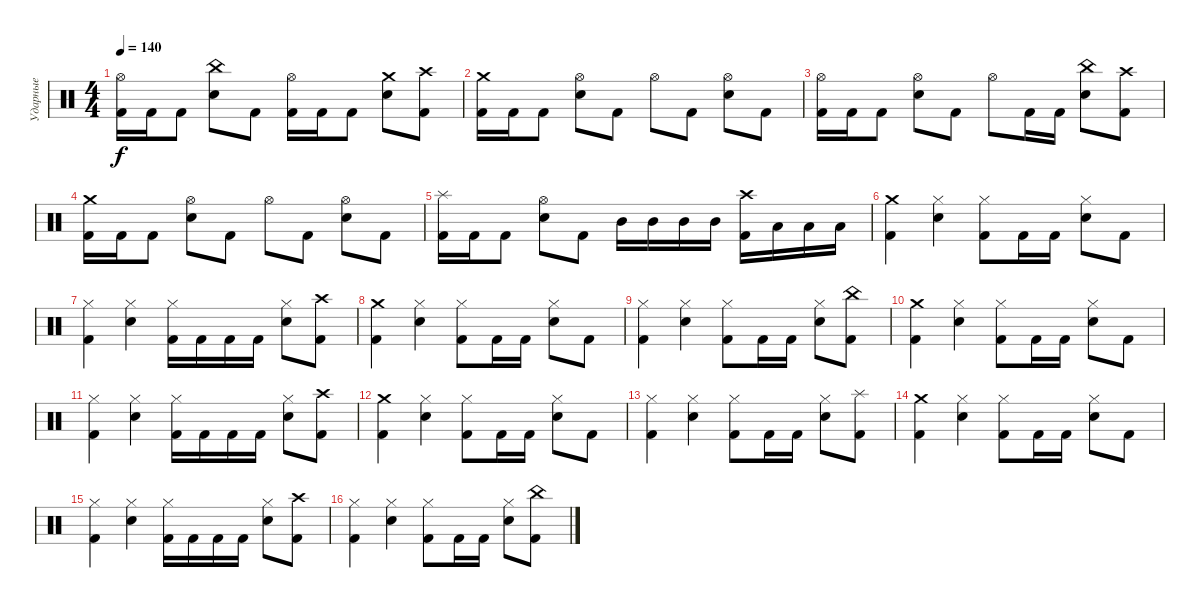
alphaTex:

\track ("Ударные" "Ударные") {instrument percussion}
\staff {score}
\articulation defaults
\ts (4 4)
\tempo 140
\clef neutral
\ks c
("Hi-Hat (open)" "Kick (hit) 2").16{dy f} "Kick (hit) 2".16 "Kick (hit) 2".8 ("China (hit)" "Electric Snare (hit)").8 "Kick (hit) 2".8 ("Hi-Hat (open)" "Kick (hit) 2").16 "Kick (hit) 2".16 "Kick (hit) 2".8 ("Crash medium (hit)" "Electric Snare (hit)").8 ("Crash high (hit)" "Kick (hit) 2").8 |
("Crash medium (hit)" "Kick (hit) 2").16 "Kick (hit) 2".16 "Kick (hit) 2".8 ("Hi-Hat (open)" "Electric Snare (hit)").8 "Kick (hit) 2".8 "Hi-Hat (open)".8 "Kick (hit) 2".8 ("Hi-Hat (open)" "Electric Snare (hit)").8 "Kick (hit) 2".8 |
("Hi-Hat (open)" "Kick (hit) 2").16 "Kick (hit) 2".16 "Kick (hit) 2".8 ("Hi-Hat (open)" "Electric Snare (hit)").8 "Kick (hit) 2".8 "Hi-Hat (open)".8 "Kick (hit) 2".16 "Kick (hit) 2".16 ("China (hit)" "Electric Snare (hit)").8 ("Crash high (hit)" "Kick (hit) 2").8 |
("Crash medium (hit)" "Kick (hit) 2").16 "Kick (hit) 2".16 "Kick (hit) 2".8 ("Hi-Hat (open)" "Electric Snare (hit)").8 "Kick (hit) 2".8 "Hi-Hat (open)".8 "Kick (hit) 2".8 ("Hi-Hat (open)" "Electric Snare (hit)").8 "Kick (hit) 2".8 |
("Splash (hit)" "Kick (hit) 2").16 "Kick (hit) 2".16 "Kick (hit) 2".8 ("Hi-Hat (open)" "Electric Snare (hit)").8 "Kick (hit) 2".8 "Mid Tom (hit)".16 "Mid Tom (hit)".16 "Mid Tom (hit)".16 "Mid Tom (hit)".16 ("Crash high (hit)" "Kick (hit) 2").16 "Low Tom (hit)".16 "Low Tom (hit)".16 "Low Tom (hit)".16 |
("Crash medium (hit)" "Kick (hit) 2").4 ("Hi-Hat (closed)" "Electric Snare (hit)").4 ("Hi-Hat (closed)" "Kick (hit) 2").8 "Kick (hit) 2".16 "Kick (hit) 2".16 ("Hi-Hat (closed)" "Electric Snare (hit)").8 "Kick (hit) 2".8 |
("Hi-Hat (closed)" "Kick (hit) 2").4 ("Hi-Hat (closed)" "Electric Snare (hit)").4 ("Hi-Hat (closed)" "Kick (hit) 2").16 "Kick (hit) 2".16 "Kick (hit) 2".16 "Kick (hit) 2".16 ("Hi-Hat (closed)" "Electric Snare (hit)").8 ("Crash high (hit)" "Kick (hit) 2").8 |
("Crash medium (hit)" "Kick (hit) 2").4 ("Hi-Hat (closed)" "Electric Snare (hit)").4 ("Hi-Hat (closed)" "Kick (hit) 2").8 "Kick (hit) 2".16 "Kick (hit) 2".16 ("Hi-Hat (closed)" "Electric Snare (hit)").8 "Kick (hit) 2".8 |
("Hi-Hat (closed)" "Kick (hit) 2").4 ("Hi-Hat (closed)" "Electric Snare (hit)").4 ("Hi-Hat (closed)" "Kick (hit) 2").8 "Kick (hit) 2".16 "Kick (hit) 2".16 ("Hi-Hat (closed)" "Electric Snare (hit)").8 ("China (hit)" "Kick (hit) 2").8 |
("Crash medium (hit)" "Kick (hit) 2").4 ("Hi-Hat (closed)" "Electric Snare (hit)").4 ("Hi-Hat (closed)" "Kick (hit) 2").8 "Kick (hit) 2".16 "Kick (hit) 2".16 ("Hi-Hat (closed)" "Electric Snare (hit)").8 "Kick (hit) 2".8 |
("Hi-Hat (closed)" "Kick (hit) 2").4 ("Hi-Hat (closed)" "Electric Snare (hit)").4 ("Hi-Hat (closed)" "Kick (hit) 2").16 "Kick (hit) 2".16 "Kick (hit) 2".16 "Kick (hit) 2".16 ("Hi-Hat (closed)" "Electric Snare (hit)").8 ("Crash high (hit)" "Kick (hit) 2").8 |
("Crash medium (hit)" "Kick (hit) 2").4 ("Hi-Hat (closed)" "Electric Snare (hit)").4 ("Hi-Hat (closed)" "Kick (hit) 2").8 "Kick (hit) 2".16 "Kick (hit) 2".16 ("Hi-Hat (closed)" "Electric Snare (hit)").8 "Kick (hit) 2".8 |
("Hi-Hat (closed)" "Kick (hit) 2").4 ("Hi-Hat (closed)" "Electric Snare (hit)").4 ("Hi-Hat (closed)" "Kick (hit) 2").8 "Kick (hit) 2".16 "Kick (hit) 2".16 ("Hi-Hat (closed)" "Electric Snare (hit)").8 ("Splash (hit)" "Kick (hit) 2").8 |
("Crash medium (hit)" "Kick (hit) 2").4 ("Hi-Hat (closed)" "Electric Snare (hit)").4 ("Hi-Hat (closed)" "Kick (hit) 2").8 "Kick (hit) 2".16 "Kick (hit) 2".16 ("Hi-Hat (closed)" "Electric Snare (hit)").8 "Kick (hit) 2".8 |
("Hi-Hat (closed)" "Kick (hit) 2").4 ("Hi-Hat (closed)" "Electric Snare (hit)").4 ("Hi-Hat (closed)" "Kick (hit) 2").16 "Kick (hit) 2".16 "Kick (hit) 2".16 "Kick (hit) 2".16 ("Hi-Hat (closed)" "Electric Snare (hit)").8 ("Crash high (hit)" "Kick (hit) 2").8 |
("Hi-Hat (closed)" "Kick (hit) 2").4 ("Hi-Hat (closed)" "Electric Snare (hit)").4 ("Hi-Hat (closed)" "Kick (hit) 2").8 "Kick (hit) 2".16 "Kick (hit) 2".16 ("Hi-Hat (closed)" "Electric Snare (hit)").8 ("China (hit)" "Kick (hit) 2").8
